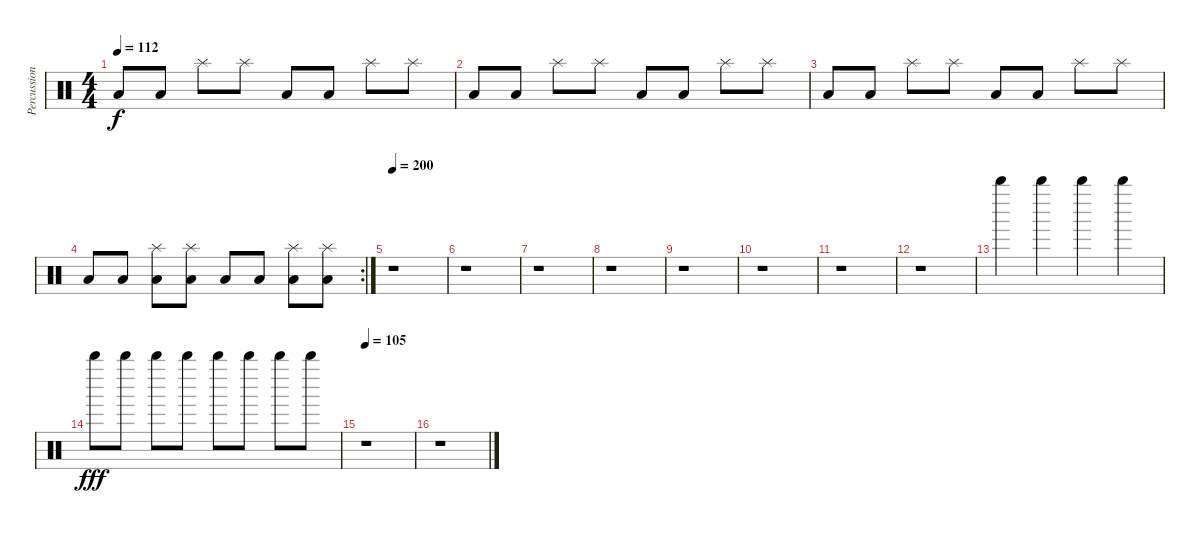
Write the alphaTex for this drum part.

\track ("Percussion" "Percussion") {instrument percussion}
\staff {score}
\articulation defaults
\ts (4 4)
\tempo 112
\clef neutral
\ks c "Low Floor Tom (hit)".8{dy f} "Low Floor Tom (hit)".8 "Splash (hit)".8 "Splash (hit)".8 "Low Floor Tom (hit)".8 "Low Floor Tom (hit)".8 "Splash (hit)".8 "Splash (hit)".8
|
"Low Floor Tom (hit)".8 "Low Floor Tom (hit)".8 "Splash (hit)".8 "Splash (hit)".8 "Low Floor Tom (hit)".8 "Low Floor Tom (hit)".8 "Splash (hit)".8 "Splash (hit)".8 |
"Low Floor Tom (hit)".8 "Low Floor Tom (hit)".8 "Splash (hit)".8 "Splash (hit)".8 "Low Floor Tom (hit)".8 "Low Floor Tom (hit)".8 "Splash (hit)".8 "Splash (hit)".8 |
\rc 2 "Low Floor Tom (hit)".8 "Low Floor Tom (hit)".8
("Splash (hit)" "Low Floor Tom (hit)").8 ("Splash (hit)" "Low Floor Tom (hit)").8 "Low Floor Tom (hit)".8 "Low Floor Tom (hit)".8 ("Splash (hit)" "Low Floor Tom (hit)").8 ("Splash (hit)" "Low Floor Tom (hit)").8 |
\tempo 200
r.1 |
r.1 |
r.1 |
r.1 |
r.1 |
r.1 |
r.1 |
r.1 |
"Whistle high (hit)".4 "Whistle high (hit)".4 "Whistle high (hit)".4 "Whistle high (hit)".4 |
"Whistle high (hit)".8{dy fff} "Whistle high (hit)".8 "Whistle high (hit)".8 "Whistle high (hit)".8 "Whistle high (hit)".8 "Whistle high (hit)".8 "Whistle high (hit)".8 "Whistle high (hit)".8 |
\tempo 105
r.1 |
r.1
